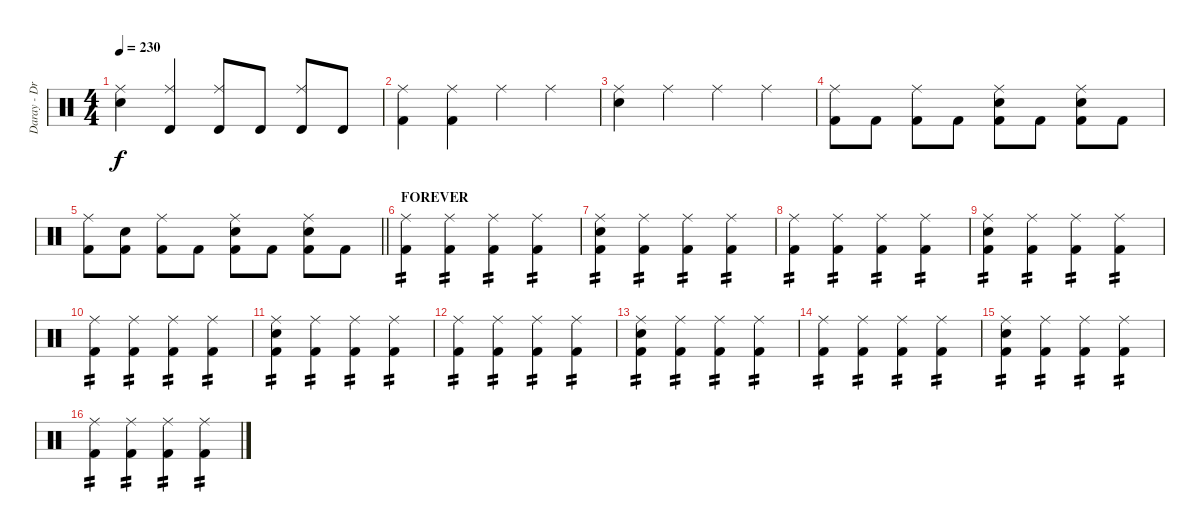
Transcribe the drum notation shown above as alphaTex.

\track ("Daray - Drums" "Daray - Dr") {instrument percussion}
\staff {score}
\articulation defaults
\ts (4 4)
\tempo 230
\clef neutral
\ks c
("Ride (middle)" "Electric Snare (hit)").4{dy f} ("Ride (middle)" "Timbale high (hit)").4 ("Ride (middle)" "Timbale high (hit)").8 "Timbale high (hit)".8 ("Ride (middle)" "Timbale high (hit)").8 "Timbale high (hit)".8 |
("Ride (middle)" "Kick (hit) 2").4 ("Ride (middle)" "Kick (hit) 2").4 "Ride (middle)".4 "Ride (middle)".4 |
("Ride (middle)" "Electric Snare (hit)").4 "Ride (middle)".4 "Ride (middle)".4 "Ride (middle)".4 |
("Ride (middle)" "Kick (hit) 2").8 "Kick (hit) 2".8 ("Ride (middle)" "Kick (hit) 2").8 "Kick (hit) 2".8 ("Ride (middle)" "Electric Snare (hit)" "Kick (hit) 2").8 "Kick (hit) 2".8 ("Ride (middle)" "Electric Snare (hit)" "Kick (hit) 2").8 "Kick (hit) 2".8 |
\barLineRight lightlight
("Ride (middle)" "Kick (hit) 2").8 ("Electric Snare (hit)" "Kick (hit) 2").8 ("Ride (middle)" "Kick (hit) 2").8 "Kick (hit) 2".8 ("Ride (middle)" "Electric Snare (hit)" "Kick (hit) 2").8 "Kick (hit) 2".8 ("Ride (middle)" "Electric Snare (hit)" "Kick (hit) 2").8 "Kick (hit) 2".8 |
\section ("" "FOREVER")
("Ride (middle)" "Kick (hit) 2").4{tp 2} ("Ride (middle)" "Kick (hit) 2").4{tp 2} ("Ride (middle)" "Kick (hit) 2").4{tp 2} ("Ride (middle)" "Kick (hit) 2").4{tp 2} |
("Ride (middle)" "Electric Snare (hit)" "Kick (hit) 2").4{tp 2} ("Ride (middle)" "Kick (hit) 2").4{tp 2} ("Ride (middle)" "Kick (hit) 2").4{tp 2} ("Ride (middle)" "Kick (hit) 2").4{tp 2} |
("Ride (middle)" "Kick (hit) 2").4{tp 2} ("Ride (middle)" "Kick (hit) 2").4{tp 2} ("Ride (middle)" "Kick (hit) 2").4{tp 2} ("Ride (middle)" "Kick (hit) 2").4{tp 2} |
("Ride (middle)" "Electric Snare (hit)" "Kick (hit) 2").4{tp 2} ("Ride (middle)" "Kick (hit) 2").4{tp 2} ("Ride (middle)" "Kick (hit) 2").4{tp 2} ("Ride (middle)" "Kick (hit) 2").4{tp 2} |
("Ride (middle)" "Kick (hit) 2").4{tp 2} ("Ride (middle)" "Kick (hit) 2").4{tp 2} ("Ride (middle)" "Kick (hit) 2").4{tp 2} ("Ride (middle)" "Kick (hit) 2").4{tp 2} |
("Ride (middle)" "Electric Snare (hit)" "Kick (hit) 2").4{tp 2} ("Ride (middle)" "Kick (hit) 2").4{tp 2} ("Ride (middle)" "Kick (hit) 2").4{tp 2} ("Ride (middle)" "Kick (hit) 2").4{tp 2} |
("Ride (middle)" "Kick (hit) 2").4{tp 2} ("Ride (middle)" "Kick (hit) 2").4{tp 2} ("Ride (middle)" "Kick (hit) 2").4{tp 2} ("Ride (middle)" "Kick (hit) 2").4{tp 2} |
("Ride (middle)" "Electric Snare (hit)" "Kick (hit) 2").4{tp 2} ("Ride (middle)" "Kick (hit) 2").4{tp 2} ("Ride (middle)" "Kick (hit) 2").4{tp 2} ("Ride (middle)" "Kick (hit) 2").4{tp 2} |
("Ride (middle)" "Kick (hit) 2").4{tp 2} ("Ride (middle)" "Kick (hit) 2").4{tp 2} ("Ride (middle)" "Kick (hit) 2").4{tp 2} ("Ride (middle)" "Kick (hit) 2").4{tp 2} |
("Ride (middle)" "Electric Snare (hit)" "Kick (hit) 2").4{tp 2} ("Ride (middle)" "Kick (hit) 2").4{tp 2} ("Ride (middle)" "Kick (hit) 2").4{tp 2} ("Ride (middle)" "Kick (hit) 2").4{tp 2} |
("Ride (middle)" "Kick (hit) 2").4{tp 2} ("Ride (middle)" "Kick (hit) 2").4{tp 2} ("Ride (middle)" "Kick (hit) 2").4{tp 2} ("Ride (middle)" "Kick (hit) 2").4{tp 2}
